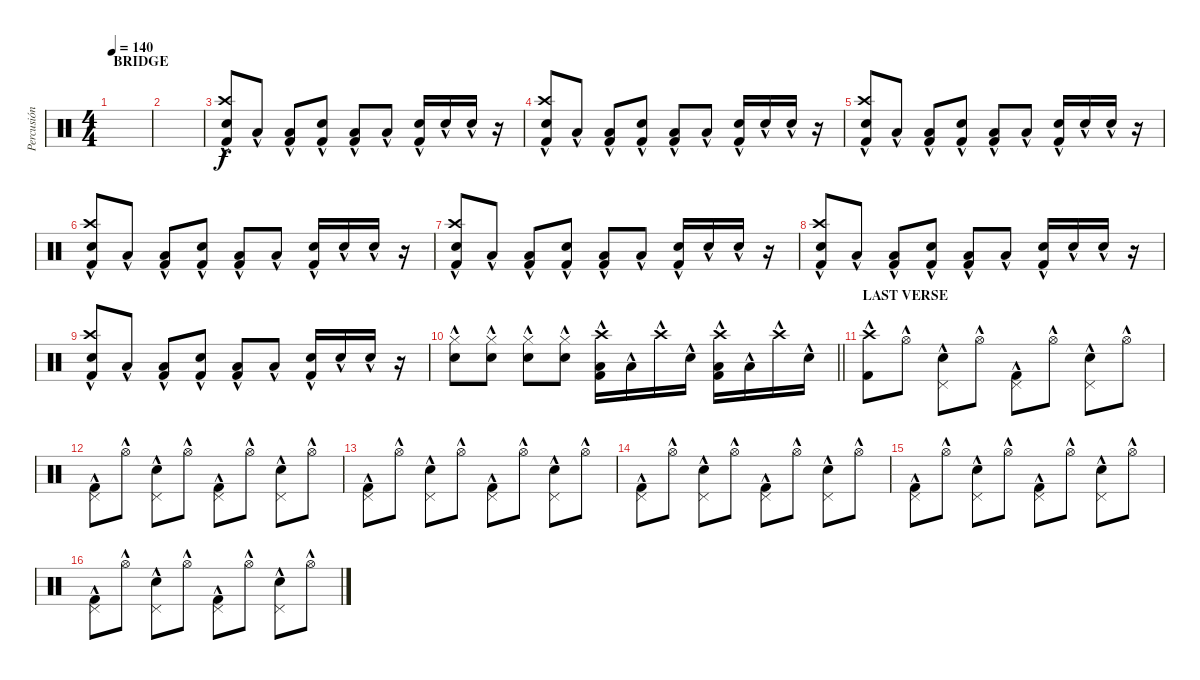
\track ("Percusión" "Percusión") {instrument percussion}
\staff {score}
\articulation defaults
\ts (4 4)
\section ("" "BRIDGE")
\tempo 140
\clef neutral
\ks c
|
|
("Snare (hit) 2"{hac} "Crash high (hit)"{hac} "Kick (hit) 2"{hac}).8 "Low Tom (hit)"{hac}.8 ("Low Tom (hit)"{hac} "Kick (hit) 2"{hac}).8 ("Snare (hit) 2"{hac} "Kick (hit) 2"{hac}).8 ("Low Tom (hit)"{hac} "Kick (hit) 2"{hac}).8 "Low Tom (hit)"{hac}.8 ("Snare (hit) 2"{hac} "Kick (hit) 2"{hac}).16 "Snare (hit) 2"{hac}.16 "Snare (hit) 2"{hac}.16 r.16 |
("Snare (hit) 2"{hac} "Crash high (hit)"{hac} "Kick (hit) 2"{hac}).8 "Low Tom (hit)"{hac}.8 ("Low Tom (hit)"{hac} "Kick (hit) 2"{hac}).8 ("Snare (hit) 2"{hac} "Kick (hit) 2"{hac}).8 ("Low Tom (hit)"{hac} "Kick (hit) 2"{hac}).8 "Low Tom (hit)"{hac}.8 ("Snare (hit) 2"{hac} "Kick (hit) 2"{hac}).16 "Snare (hit) 2"{hac}.16 "Snare (hit) 2"{hac}.16 r.16 |
("Snare (hit) 2"{hac} "Crash high (hit)"{hac} "Kick (hit) 2"{hac}).8 "Low Tom (hit)"{hac}.8 ("Low Tom (hit)"{hac} "Kick (hit) 2"{hac}).8 ("Snare (hit) 2"{hac} "Kick (hit) 2"{hac}).8 ("Low Tom (hit)"{hac} "Kick (hit) 2"{hac}).8 "Low Tom (hit)"{hac}.8 ("Snare (hit) 2"{hac} "Kick (hit) 2"{hac}).16 "Snare (hit) 2"{hac}.16 "Snare (hit) 2"{hac}.16 r.16 |
("Snare (hit) 2"{hac} "Crash high (hit)"{hac} "Kick (hit) 2"{hac}).8 "Low Tom (hit)"{hac}.8 ("Low Tom (hit)"{hac} "Kick (hit) 2"{hac}).8 ("Snare (hit) 2"{hac} "Kick (hit) 2"{hac}).8 ("Low Tom (hit)"{hac} "Kick (hit) 2"{hac}).8 "Low Tom (hit)"{hac}.8 ("Snare (hit) 2"{hac} "Kick (hit) 2"{hac}).16 "Snare (hit) 2"{hac}.16 "Snare (hit) 2"{hac}.16 r.16 |
("Snare (hit) 2"{hac} "Crash high (hit)"{hac} "Kick (hit) 2"{hac}).8 "Low Tom (hit)"{hac}.8 ("Low Tom (hit)"{hac} "Kick (hit) 2"{hac}).8 ("Snare (hit) 2"{hac} "Kick (hit) 2"{hac}).8 ("Low Tom (hit)"{hac} "Kick (hit) 2"{hac}).8 "Low Tom (hit)"{hac}.8 ("Snare (hit) 2"{hac} "Kick (hit) 2"{hac}).16 "Snare (hit) 2"{hac}.16 "Snare (hit) 2"{hac}.16 r.16 |
("Snare (hit) 2"{hac} "Crash high (hit)"{hac} "Kick (hit) 2"{hac}).8 "Low Tom (hit)"{hac}.8 ("Low Tom (hit)"{hac} "Kick (hit) 2"{hac}).8 ("Snare (hit) 2"{hac} "Kick (hit) 2"{hac}).8 ("Low Tom (hit)"{hac} "Kick (hit) 2"{hac}).8 "Low Tom (hit)"{hac}.8 ("Snare (hit) 2"{hac} "Kick (hit) 2"{hac}).16 "Snare (hit) 2"{hac}.16 "Snare (hit) 2"{hac}.16 r.16 |
("Snare (hit) 2"{hac} "Crash high (hit)"{hac} "Kick (hit) 2"{hac}).8 "Low Tom (hit)"{hac}.8 ("Low Tom (hit)"{hac} "Kick (hit) 2"{hac}).8 ("Snare (hit) 2"{hac} "Kick (hit) 2"{hac}).8 ("Low Tom (hit)"{hac} "Kick (hit) 2"{hac}).8 "Low Tom (hit)"{hac}.8 ("Snare (hit) 2"{hac} "Kick (hit) 2"{hac}).16 "Snare (hit) 2"{hac}.16 "Snare (hit) 2"{hac}.16 r.16 |
\barLineRight lightlight
("Snare (hit) 2"{hac} "Hi-Hat (closed)"{hac}).8 ("Snare (hit) 2"{hac} "Hi-Hat (closed)"{hac}).8 ("Snare (hit) 2"{hac} "Hi-Hat (closed)"{hac}).8 ("Snare (hit) 2"{hac} "Hi-Hat (closed)"{hac}).8 ("Crash high (hit)"{hac} "Low Tom (hit)"{hac} "Kick (hit) 2"{hac}).16 "Low Tom (hit)"{hac}.16 "Crash high (hit)"{hac}.16 "Snare (hit) 2"{hac}.16 ("Crash high (hit)"{hac} "Low Tom (hit)"{hac} "Kick (hit) 2"{hac}).16 "Low Tom (hit)"{hac}.16 "Crash high (hit)"{hac}.16 "Snare (hit) 2"{hac}.16 |
\section ("" "LAST VERSE")
("Crash high (hit)"{hac} "Kick (hit) 2"{hac}).8 "Hi-Hat (open)"{hac}.8 ("Snare (hit) 2"{hac} "Pedal Hi-Hat (hit)"{hac}).8 "Hi-Hat (open)"{hac}.8 ("Kick (hit) 2"{hac} "Pedal Hi-Hat (hit)"{hac}).8 "Hi-Hat (open)"{hac}.8 ("Snare (hit) 2"{hac} "Pedal Hi-Hat (hit)"{hac}).8 "Hi-Hat (open)"{hac}.8 |
("Kick (hit) 2"{hac} "Pedal Hi-Hat (hit)"{hac}).8 "Hi-Hat (open)"{hac}.8 ("Snare (hit) 2"{hac} "Pedal Hi-Hat (hit)"{hac}).8 "Hi-Hat (open)"{hac}.8 ("Kick (hit) 2"{hac} "Pedal Hi-Hat (hit)"{hac}).8 "Hi-Hat (open)"{hac}.8 ("Snare (hit) 2"{hac} "Pedal Hi-Hat (hit)"{hac}).8 "Hi-Hat (open)"{hac}.8 |
("Kick (hit) 2"{hac} "Pedal Hi-Hat (hit)"{hac}).8 "Hi-Hat (open)"{hac}.8 ("Snare (hit) 2"{hac} "Pedal Hi-Hat (hit)"{hac}).8 "Hi-Hat (open)"{hac}.8 ("Kick (hit) 2"{hac} "Pedal Hi-Hat (hit)"{hac}).8 "Hi-Hat (open)"{hac}.8 ("Snare (hit) 2"{hac} "Pedal Hi-Hat (hit)"{hac}).8 "Hi-Hat (open)"{hac}.8 |
("Kick (hit) 2"{hac} "Pedal Hi-Hat (hit)"{hac}).8 "Hi-Hat (open)"{hac}.8 ("Snare (hit) 2"{hac} "Pedal Hi-Hat (hit)"{hac}).8 "Hi-Hat (open)"{hac}.8 ("Kick (hit) 2"{hac} "Pedal Hi-Hat (hit)"{hac}).8 "Hi-Hat (open)"{hac}.8 ("Snare (hit) 2"{hac} "Pedal Hi-Hat (hit)"{hac}).8 "Hi-Hat (open)"{hac}.8 |
("Kick (hit) 2"{hac} "Pedal Hi-Hat (hit)"{hac}).8 "Hi-Hat (open)"{hac}.8 ("Snare (hit) 2"{hac} "Pedal Hi-Hat (hit)"{hac}).8 "Hi-Hat (open)"{hac}.8 ("Kick (hit) 2"{hac} "Pedal Hi-Hat (hit)"{hac}).8 "Hi-Hat (open)"{hac}.8 ("Snare (hit) 2"{hac} "Pedal Hi-Hat (hit)"{hac}).8 "Hi-Hat (open)"{hac}.8 |
("Kick (hit) 2"{hac} "Pedal Hi-Hat (hit)"{hac}).8 "Hi-Hat (open)"{hac}.8 ("Snare (hit) 2"{hac} "Pedal Hi-Hat (hit)"{hac}).8 "Hi-Hat (open)"{hac}.8 ("Kick (hit) 2"{hac} "Pedal Hi-Hat (hit)"{hac}).8 "Hi-Hat (open)"{hac}.8 ("Snare (hit) 2"{hac} "Pedal Hi-Hat (hit)"{hac}).8 "Hi-Hat (open)"{hac}.8
